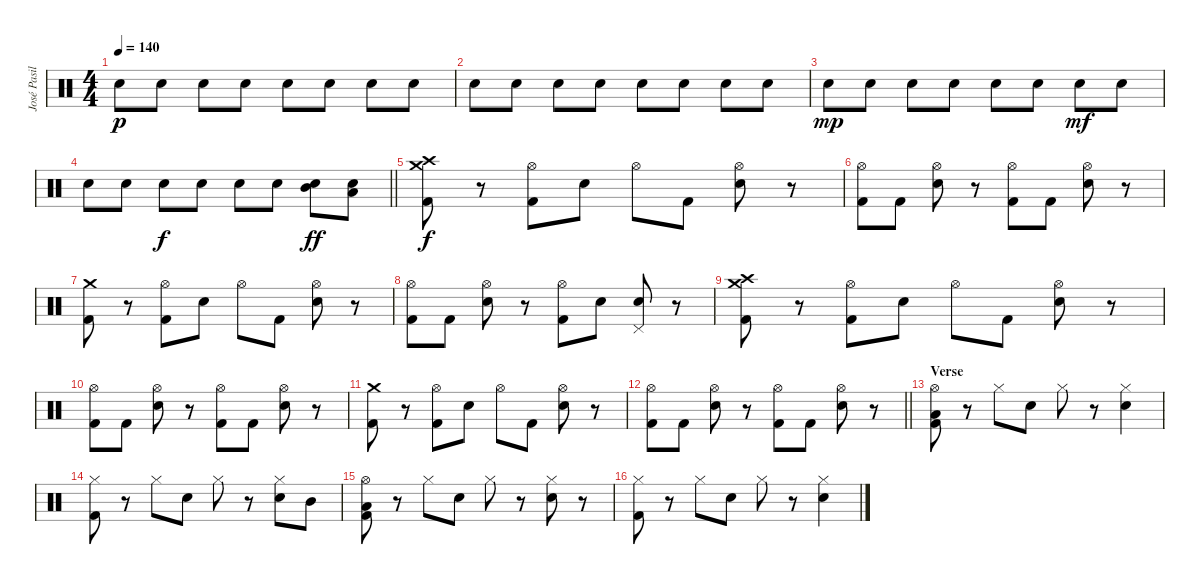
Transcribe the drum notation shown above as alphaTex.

\track ("José Pasillas [Drums]" "José Pasil") {instrument percussion}
\staff {score}
\articulation defaults
\ts (4 4)
\tempo 140
\clef neutral
\ks c "Electric Snare (hit)".8{dy p} "Electric Snare (hit)".8 "Electric Snare (hit)".8 "Electric Snare (hit)".8 "Electric Snare (hit)".8 "Electric Snare (hit)".8 "Electric Snare (hit)".8 "Electric Snare (hit)".8
|
"Electric Snare (hit)".8 "Electric Snare (hit)".8 "Electric Snare (hit)".8 "Electric Snare (hit)".8 "Electric Snare (hit)".8 "Electric Snare (hit)".8 "Electric Snare (hit)".8 "Electric Snare (hit)".8 |
"Electric Snare (hit)".8{dy mp} "Electric Snare (hit)".8 "Electric Snare (hit)".8 "Electric Snare (hit)".8 "Electric Snare (hit)".8 "Electric Snare (hit)".8 "Electric Snare (hit)".8{dy mf} "Electric Snare (hit)".8 |
\barLineRight lightlight "Electric Snare (hit)".8 "Electric Snare (hit)".8 "Electric Snare (hit)".8{dy f} "Electric Snare (hit)".8 "Electric Snare (hit)".8 "Electric Snare (hit)".8
("Electric Snare (hit)" "Mid Tom (hit)").8{dy ff} ("Electric Snare (hit)" "Low Tom (hit)").8 |
("Kick (hit) 2" "Crash high (hit)" "Crash medium (hit)").8{dy f} r.8 ("Kick (hit) 2" "Hi-Hat (open)").8 "Electric Snare (hit)".8 "Hi-Hat (open)".8 "Kick (hit) 2".8 ("Electric Snare (hit)" "Hi-Hat (open)").8 r.8 |
("Kick (hit) 2" "Hi-Hat (open)").8 "Kick (hit) 2".8 ("Electric Snare (hit)" "Hi-Hat (open)").8 r.8 ("Kick (hit) 2" "Hi-Hat (open)").8 "Kick (hit) 2".8 ("Electric Snare (hit)" "Hi-Hat (open)").8 r.8 |
("Kick (hit) 2" "Crash medium (hit)").8 r.8 ("Kick (hit) 2" "Hi-Hat (open)").8 "Electric Snare (hit)".8 "Hi-Hat (open)".8 "Kick (hit) 2".8 ("Electric Snare (hit)" "Hi-Hat (open)").8 r.8 |
("Kick (hit) 2" "Hi-Hat (open)").8 "Kick (hit) 2".8 ("Electric Snare (hit)" "Hi-Hat (open)").8 r.8 ("Kick (hit) 2" "Hi-Hat (open)").8 "Electric Snare (hit)".8 ("Electric Snare (hit)" "Pedal Hi-Hat (hit)").8 r.8 |
("Kick (hit) 2" "Crash high (hit)" "Crash medium (hit)").8 r.8 ("Kick (hit) 2" "Hi-Hat (open)").8 "Electric Snare (hit)".8 "Hi-Hat (open)".8 "Kick (hit) 2".8 ("Electric Snare (hit)" "Hi-Hat (open)").8 r.8 |
("Kick (hit) 2" "Hi-Hat (open)").8 "Kick (hit) 2".8 ("Electric Snare (hit)" "Hi-Hat (open)").8 r.8 ("Kick (hit) 2" "Hi-Hat (open)").8 "Kick (hit) 2".8 ("Electric Snare (hit)" "Hi-Hat (open)").8 r.8 |
("Kick (hit) 2" "Crash medium (hit)").8 r.8 ("Kick (hit) 2" "Hi-Hat (open)").8 "Electric Snare (hit)".8 "Hi-Hat (open)".8 "Kick (hit) 2".8 ("Electric Snare (hit)" "Hi-Hat (open)").8 r.8 |
\barLineRight lightlight
("Kick (hit) 2" "Hi-Hat (open)").8 "Kick (hit) 2".8 ("Electric Snare (hit)" "Hi-Hat (open)").8 r.8 ("Kick (hit) 2" "Hi-Hat (open)").8 "Kick (hit) 2".8 ("Electric Snare (hit)" "Hi-Hat (open)").8 r.8 |
\section ("" "Verse")
("Kick (hit) 2" "Low Tom (hit)" "Hi-Hat (open)").8 r.8 "Hi-Hat (closed)".8 "Electric Snare (hit)".8 "Hi-Hat (closed)".8 r.8 ("Electric Snare (hit)" "Hi-Hat (closed)").4 |
("Kick (hit) 2" "Hi-Hat (closed)").8 r.8 "Hi-Hat (closed)".8 "Electric Snare (hit)".8 "Hi-Hat (closed)".8 r.8 ("Electric Snare (hit)" "Hi-Hat (closed)").8 "Mid Tom (hit)".8 |
("Kick (hit) 2" "Low Tom (hit)" "Hi-Hat (open)").8 r.8 "Hi-Hat (closed)".8 "Electric Snare (hit)".8 "Hi-Hat (closed)".8 r.8 ("Electric Snare (hit)" "Hi-Hat (closed)").8 r.8 |
("Kick (hit) 2" "Hi-Hat (closed)").8 r.8 "Hi-Hat (closed)".8 "Electric Snare (hit)".8 "Hi-Hat (closed)".8 r.8 ("Electric Snare (hit)" "Hi-Hat (closed)").4
